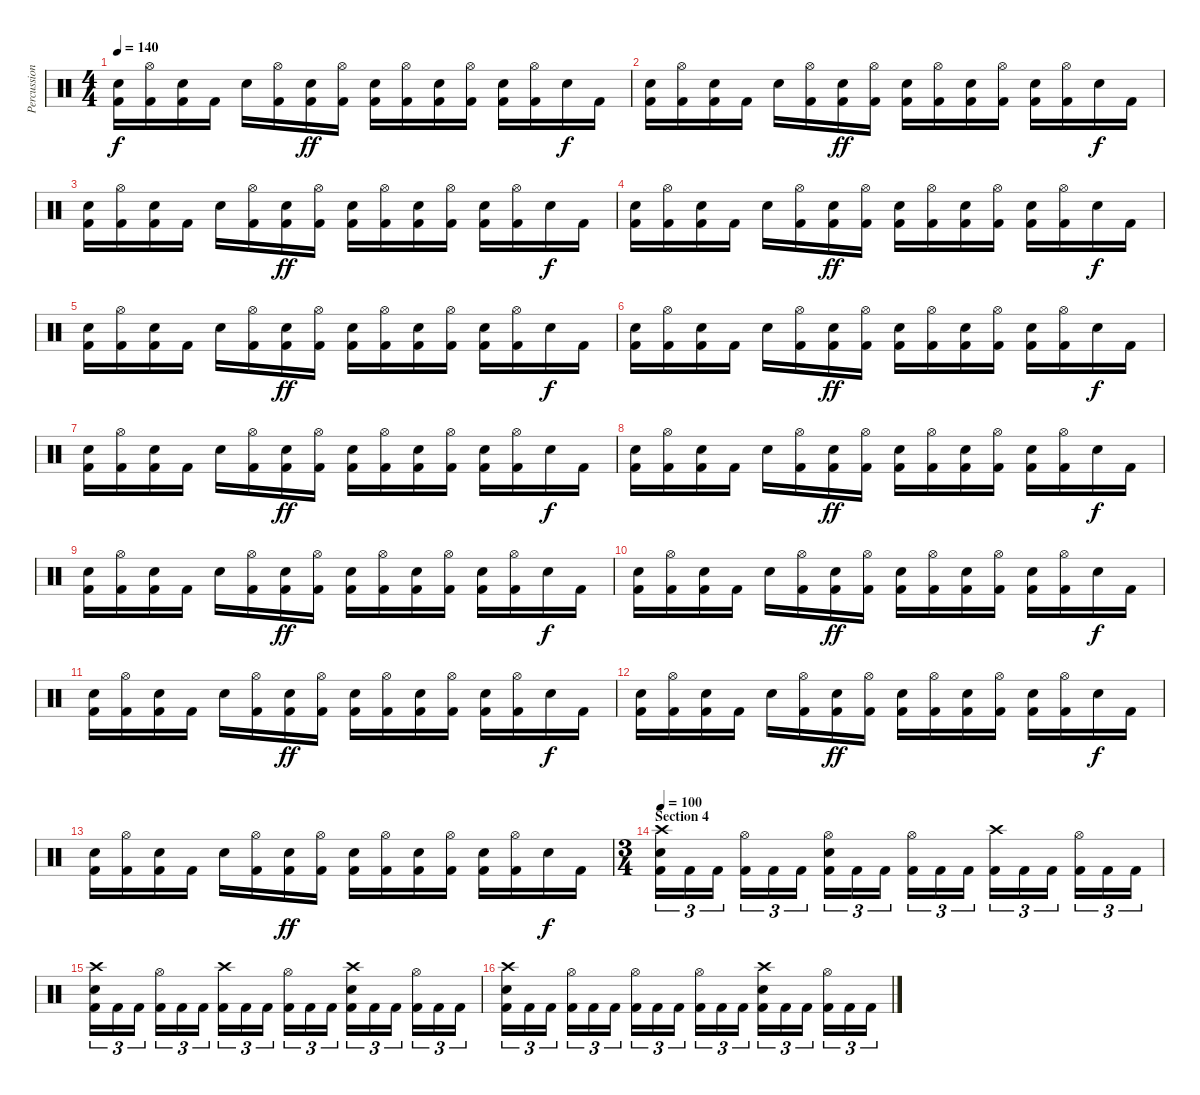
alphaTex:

\track ("Percussion" "Percussion") {instrument percussion}
\staff {score}
\articulation defaults
\ts (4 4)
\tempo 140
\clef neutral
\ks c
("Electric Snare (hit)" "Kick (hit) 2").16{dy f} ("Hi-Hat (open)" "Kick (hit) 2").16 ("Electric Snare (hit)" "Kick (hit) 2").16 "Kick (hit) 2".16 "Electric Snare (hit)".16 ("Hi-Hat (open)" "Kick (hit) 2").16 ("Electric Snare (hit)" "Kick (hit) 2").16{dy ff} ("Hi-Hat (open)" "Kick (hit) 2").16 ("Electric Snare (hit)" "Kick (hit) 2").16 ("Hi-Hat (open)" "Kick (hit) 2").16 ("Electric Snare (hit)" "Kick (hit) 2").16 ("Hi-Hat (open)" "Kick (hit) 2").16 ("Electric Snare (hit)" "Kick (hit) 2").16 ("Hi-Hat (open)" "Kick (hit) 2").16 "Electric Snare (hit)".16{dy f} "Kick (hit) 2".16 |
("Electric Snare (hit)" "Kick (hit) 2").16 ("Hi-Hat (open)" "Kick (hit) 2").16 ("Electric Snare (hit)" "Kick (hit) 2").16 "Kick (hit) 2".16 "Electric Snare (hit)".16 ("Hi-Hat (open)" "Kick (hit) 2").16 ("Electric Snare (hit)" "Kick (hit) 2").16{dy ff} ("Hi-Hat (open)" "Kick (hit) 2").16 ("Electric Snare (hit)" "Kick (hit) 2").16 ("Hi-Hat (open)" "Kick (hit) 2").16 ("Electric Snare (hit)" "Kick (hit) 2").16 ("Hi-Hat (open)" "Kick (hit) 2").16 ("Electric Snare (hit)" "Kick (hit) 2").16 ("Hi-Hat (open)" "Kick (hit) 2").16 "Electric Snare (hit)".16{dy f} "Kick (hit) 2".16 |
("Electric Snare (hit)" "Kick (hit) 2").16 ("Hi-Hat (open)" "Kick (hit) 2").16 ("Electric Snare (hit)" "Kick (hit) 2").16 "Kick (hit) 2".16 "Electric Snare (hit)".16 ("Hi-Hat (open)" "Kick (hit) 2").16 ("Electric Snare (hit)" "Kick (hit) 2").16{dy ff} ("Hi-Hat (open)" "Kick (hit) 2").16 ("Electric Snare (hit)" "Kick (hit) 2").16 ("Hi-Hat (open)" "Kick (hit) 2").16 ("Electric Snare (hit)" "Kick (hit) 2").16 ("Hi-Hat (open)" "Kick (hit) 2").16 ("Electric Snare (hit)" "Kick (hit) 2").16 ("Hi-Hat (open)" "Kick (hit) 2").16 "Electric Snare (hit)".16{dy f} "Kick (hit) 2".16 |
("Electric Snare (hit)" "Kick (hit) 2").16 ("Hi-Hat (open)" "Kick (hit) 2").16 ("Electric Snare (hit)" "Kick (hit) 2").16 "Kick (hit) 2".16 "Electric Snare (hit)".16 ("Hi-Hat (open)" "Kick (hit) 2").16 ("Electric Snare (hit)" "Kick (hit) 2").16{dy ff} ("Hi-Hat (open)" "Kick (hit) 2").16 ("Electric Snare (hit)" "Kick (hit) 2").16 ("Hi-Hat (open)" "Kick (hit) 2").16 ("Electric Snare (hit)" "Kick (hit) 2").16 ("Hi-Hat (open)" "Kick (hit) 2").16 ("Electric Snare (hit)" "Kick (hit) 2").16 ("Hi-Hat (open)" "Kick (hit) 2").16 "Electric Snare (hit)".16{dy f} "Kick (hit) 2".16 |
("Electric Snare (hit)" "Kick (hit) 2").16 ("Hi-Hat (open)" "Kick (hit) 2").16 ("Electric Snare (hit)" "Kick (hit) 2").16 "Kick (hit) 2".16 "Electric Snare (hit)".16 ("Hi-Hat (open)" "Kick (hit) 2").16 ("Electric Snare (hit)" "Kick (hit) 2").16{dy ff} ("Hi-Hat (open)" "Kick (hit) 2").16 ("Electric Snare (hit)" "Kick (hit) 2").16 ("Hi-Hat (open)" "Kick (hit) 2").16 ("Electric Snare (hit)" "Kick (hit) 2").16 ("Hi-Hat (open)" "Kick (hit) 2").16 ("Electric Snare (hit)" "Kick (hit) 2").16 ("Hi-Hat (open)" "Kick (hit) 2").16 "Electric Snare (hit)".16{dy f} "Kick (hit) 2".16 |
("Electric Snare (hit)" "Kick (hit) 2").16 ("Hi-Hat (open)" "Kick (hit) 2").16 ("Electric Snare (hit)" "Kick (hit) 2").16 "Kick (hit) 2".16 "Electric Snare (hit)".16 ("Hi-Hat (open)" "Kick (hit) 2").16 ("Electric Snare (hit)" "Kick (hit) 2").16{dy ff} ("Hi-Hat (open)" "Kick (hit) 2").16 ("Electric Snare (hit)" "Kick (hit) 2").16 ("Hi-Hat (open)" "Kick (hit) 2").16 ("Electric Snare (hit)" "Kick (hit) 2").16 ("Hi-Hat (open)" "Kick (hit) 2").16 ("Electric Snare (hit)" "Kick (hit) 2").16 ("Hi-Hat (open)" "Kick (hit) 2").16 "Electric Snare (hit)".16{dy f} "Kick (hit) 2".16 |
("Electric Snare (hit)" "Kick (hit) 2").16 ("Hi-Hat (open)" "Kick (hit) 2").16 ("Electric Snare (hit)" "Kick (hit) 2").16 "Kick (hit) 2".16 "Electric Snare (hit)".16 ("Hi-Hat (open)" "Kick (hit) 2").16 ("Electric Snare (hit)" "Kick (hit) 2").16{dy ff} ("Hi-Hat (open)" "Kick (hit) 2").16 ("Electric Snare (hit)" "Kick (hit) 2").16 ("Hi-Hat (open)" "Kick (hit) 2").16 ("Electric Snare (hit)" "Kick (hit) 2").16 ("Hi-Hat (open)" "Kick (hit) 2").16 ("Electric Snare (hit)" "Kick (hit) 2").16 ("Hi-Hat (open)" "Kick (hit) 2").16 "Electric Snare (hit)".16{dy f} "Kick (hit) 2".16 |
("Electric Snare (hit)" "Kick (hit) 2").16 ("Hi-Hat (open)" "Kick (hit) 2").16 ("Electric Snare (hit)" "Kick (hit) 2").16 "Kick (hit) 2".16 "Electric Snare (hit)".16 ("Hi-Hat (open)" "Kick (hit) 2").16 ("Electric Snare (hit)" "Kick (hit) 2").16{dy ff} ("Hi-Hat (open)" "Kick (hit) 2").16 ("Electric Snare (hit)" "Kick (hit) 2").16 ("Hi-Hat (open)" "Kick (hit) 2").16 ("Electric Snare (hit)" "Kick (hit) 2").16 ("Hi-Hat (open)" "Kick (hit) 2").16 ("Electric Snare (hit)" "Kick (hit) 2").16 ("Hi-Hat (open)" "Kick (hit) 2").16 "Electric Snare (hit)".16{dy f} "Kick (hit) 2".16 |
("Electric Snare (hit)" "Kick (hit) 2").16 ("Hi-Hat (open)" "Kick (hit) 2").16 ("Electric Snare (hit)" "Kick (hit) 2").16 "Kick (hit) 2".16 "Electric Snare (hit)".16 ("Hi-Hat (open)" "Kick (hit) 2").16 ("Electric Snare (hit)" "Kick (hit) 2").16{dy ff} ("Hi-Hat (open)" "Kick (hit) 2").16 ("Electric Snare (hit)" "Kick (hit) 2").16 ("Hi-Hat (open)" "Kick (hit) 2").16 ("Electric Snare (hit)" "Kick (hit) 2").16 ("Hi-Hat (open)" "Kick (hit) 2").16 ("Electric Snare (hit)" "Kick (hit) 2").16 ("Hi-Hat (open)" "Kick (hit) 2").16 "Electric Snare (hit)".16{dy f} "Kick (hit) 2".16 |
("Electric Snare (hit)" "Kick (hit) 2").16 ("Hi-Hat (open)" "Kick (hit) 2").16 ("Electric Snare (hit)" "Kick (hit) 2").16 "Kick (hit) 2".16 "Electric Snare (hit)".16 ("Hi-Hat (open)" "Kick (hit) 2").16 ("Electric Snare (hit)" "Kick (hit) 2").16{dy ff} ("Hi-Hat (open)" "Kick (hit) 2").16 ("Electric Snare (hit)" "Kick (hit) 2").16 ("Hi-Hat (open)" "Kick (hit) 2").16 ("Electric Snare (hit)" "Kick (hit) 2").16 ("Hi-Hat (open)" "Kick (hit) 2").16 ("Electric Snare (hit)" "Kick (hit) 2").16 ("Hi-Hat (open)" "Kick (hit) 2").16 "Electric Snare (hit)".16{dy f} "Kick (hit) 2".16 |
("Electric Snare (hit)" "Kick (hit) 2").16 ("Hi-Hat (open)" "Kick (hit) 2").16 ("Electric Snare (hit)" "Kick (hit) 2").16 "Kick (hit) 2".16 "Electric Snare (hit)".16 ("Hi-Hat (open)" "Kick (hit) 2").16 ("Electric Snare (hit)" "Kick (hit) 2").16{dy ff} ("Hi-Hat (open)" "Kick (hit) 2").16 ("Electric Snare (hit)" "Kick (hit) 2").16 ("Hi-Hat (open)" "Kick (hit) 2").16 ("Electric Snare (hit)" "Kick (hit) 2").16 ("Hi-Hat (open)" "Kick (hit) 2").16 ("Electric Snare (hit)" "Kick (hit) 2").16 ("Hi-Hat (open)" "Kick (hit) 2").16 "Electric Snare (hit)".16{dy f} "Kick (hit) 2".16 |
("Electric Snare (hit)" "Kick (hit) 2").16 ("Hi-Hat (open)" "Kick (hit) 2").16 ("Electric Snare (hit)" "Kick (hit) 2").16 "Kick (hit) 2".16 "Electric Snare (hit)".16 ("Hi-Hat (open)" "Kick (hit) 2").16 ("Electric Snare (hit)" "Kick (hit) 2").16{dy ff} ("Hi-Hat (open)" "Kick (hit) 2").16 ("Electric Snare (hit)" "Kick (hit) 2").16 ("Hi-Hat (open)" "Kick (hit) 2").16 ("Electric Snare (hit)" "Kick (hit) 2").16 ("Hi-Hat (open)" "Kick (hit) 2").16 ("Electric Snare (hit)" "Kick (hit) 2").16 ("Hi-Hat (open)" "Kick (hit) 2").16 "Electric Snare (hit)".16{dy f} "Kick (hit) 2".16 |
("Electric Snare (hit)" "Kick (hit) 2").16 ("Hi-Hat (open)" "Kick (hit) 2").16 ("Electric Snare (hit)" "Kick (hit) 2").16 "Kick (hit) 2".16 "Electric Snare (hit)".16 ("Hi-Hat (open)" "Kick (hit) 2").16 ("Electric Snare (hit)" "Kick (hit) 2").16{dy ff} ("Hi-Hat (open)" "Kick (hit) 2").16 ("Electric Snare (hit)" "Kick (hit) 2").16 ("Hi-Hat (open)" "Kick (hit) 2").16 ("Electric Snare (hit)" "Kick (hit) 2").16 ("Hi-Hat (open)" "Kick (hit) 2").16 ("Electric Snare (hit)" "Kick (hit) 2").16 ("Hi-Hat (open)" "Kick (hit) 2").16 "Electric Snare (hit)".16{dy f} "Kick (hit) 2".16 |
\ts (3 4)
\section ("" "Section 4")
\tempo 100
("Crash high (hit)" "Electric Snare (hit)" "Kick (hit) 2").16{tu (3 2)} "Kick (hit) 2".16{tu (3 2)} "Kick (hit) 2".16{tu (3 2)} ("Hi-Hat (open)" "Kick (hit) 2").16{tu (3 2)} "Kick (hit) 2".16{tu (3 2)} "Kick (hit) 2".16{tu (3 2)} ("Hi-Hat (open)" "Electric Snare (hit)" "Kick (hit) 2").16{tu (3 2)} "Kick (hit) 2".16{tu (3 2)} "Kick (hit) 2".16{tu (3 2)} ("Hi-Hat (open)" "Kick (hit) 2").16{tu (3 2)} "Kick (hit) 2".16{tu (3 2)} "Kick (hit) 2".16{tu (3 2)} ("Crash high (hit)" "Kick (hit) 2").16{tu (3 2)} "Kick (hit) 2".16{tu (3 2)} "Kick (hit) 2".16{tu (3 2)} ("Hi-Hat (open)" "Kick (hit) 2").16{tu (3 2)} "Kick (hit) 2".16{tu (3 2)} "Kick (hit) 2".16{tu (3 2)} |
("Crash high (hit)" "Electric Snare (hit)" "Kick (hit) 2").16{tu (3 2)} "Kick (hit) 2".16{tu (3 2)} "Kick (hit) 2".16{tu (3 2)} ("Hi-Hat (open)" "Kick (hit) 2").16{tu (3 2)} "Kick (hit) 2".16{tu (3 2)} "Kick (hit) 2".16{tu (3 2)} ("Crash high (hit)" "Kick (hit) 2").16{tu (3 2)} "Kick (hit) 2".16{tu (3 2)} "Kick (hit) 2".16{tu (3 2)} ("Hi-Hat (open)" "Kick (hit) 2").16{tu (3 2)} "Kick (hit) 2".16{tu (3 2)} "Kick (hit) 2".16{tu (3 2)} ("Crash high (hit)" "Electric Snare (hit)" "Kick (hit) 2").16{tu (3 2)} "Kick (hit) 2".16{tu (3 2)} "Kick (hit) 2".16{tu (3 2)} ("Hi-Hat (open)" "Kick (hit) 2").16{tu (3 2)} "Kick (hit) 2".16{tu (3 2)} "Kick (hit) 2".16{tu (3 2)} |
("Crash high (hit)" "Electric Snare (hit)" "Kick (hit) 2").16{tu (3 2)} "Kick (hit) 2".16{tu (3 2)} "Kick (hit) 2".16{tu (3 2)} ("Hi-Hat (open)" "Kick (hit) 2").16{tu (3 2)} "Kick (hit) 2".16{tu (3 2)} "Kick (hit) 2".16{tu (3 2)} ("Hi-Hat (open)" "Kick (hit) 2").16{tu (3 2)} "Kick (hit) 2".16{tu (3 2)} "Kick (hit) 2".16{tu (3 2)} ("Hi-Hat (open)" "Kick (hit) 2").16{tu (3 2)} "Kick (hit) 2".16{tu (3 2)} "Kick (hit) 2".16{tu (3 2)} ("Crash high (hit)" "Electric Snare (hit)" "Kick (hit) 2").16{tu (3 2)} "Kick (hit) 2".16{tu (3 2)} "Kick (hit) 2".16{tu (3 2)} ("Hi-Hat (open)" "Kick (hit) 2").16{tu (3 2)} "Kick (hit) 2".16{tu (3 2)} "Kick (hit) 2".16{tu (3 2)}
